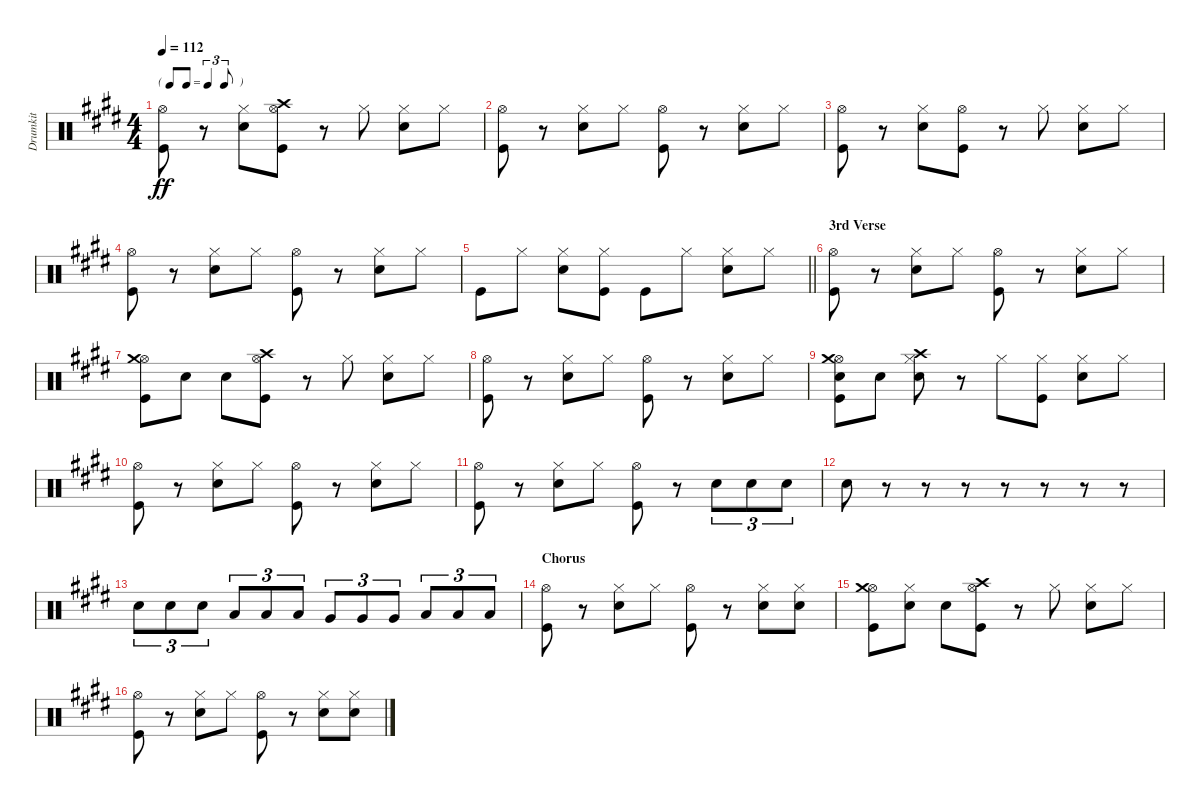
\track ("Drumkit" "Drumkit") {instrument percussion}
\staff {score}
\articulation defaults
\ts (4 4)
\tf triplet8th
\tempo 112
\clef neutral
\ks e
("Hi-Hat (open)" "Kick (hit)").8{dy ff} r.8 ("Snare (hit) 2" "Hi-Hat (closed)").8 ("Hi-Hat (open)" "Kick (hit)" "Crash high (hit)").8 r.8 "Hi-Hat (closed)".8 ("Snare (hit) 2" "Hi-Hat (closed)").8 "Hi-Hat (closed)".8 |
("Hi-Hat (open)" "Kick (hit)").8 r.8 ("Snare (hit) 2" "Hi-Hat (closed)").8 "Hi-Hat (closed)".8 ("Kick (hit)" "Hi-Hat (open)").8 r.8 ("Snare (hit) 2" "Hi-Hat (closed)").8 "Hi-Hat (closed)".8 |
("Hi-Hat (open)" "Kick (hit)").8 r.8 ("Snare (hit) 2" "Hi-Hat (closed)").8 ("Hi-Hat (open)" "Kick (hit)").8 r.8 "Hi-Hat (closed)".8 ("Snare (hit) 2" "Hi-Hat (closed)").8 "Hi-Hat (closed)".8 |
("Hi-Hat (open)" "Kick (hit)").8 r.8 ("Snare (hit) 2" "Hi-Hat (closed)").8 "Hi-Hat (closed)".8 ("Kick (hit)" "Hi-Hat (open)").8 r.8 ("Snare (hit) 2" "Hi-Hat (closed)").8 "Hi-Hat (closed)".8 |
\barLineRight lightlight "Kick (hit)".8 "Hi-Hat (closed)".8
("Snare (hit) 2" "Hi-Hat (closed)").8 ("Hi-Hat (closed)" "Kick (hit)").8 "Kick (hit)".8 "Hi-Hat (closed)".8 ("Snare (hit) 2" "Hi-Hat (closed)").8 "Hi-Hat (closed)".8 |
\section ("" "3rd Verse")
("Hi-Hat (open)" "Kick (hit)").8 r.8 ("Snare (hit) 2" "Hi-Hat (closed)").8 "Hi-Hat (closed)".8 ("Kick (hit)" "Hi-Hat (open)").8 r.8 ("Snare (hit) 2" "Hi-Hat (closed)").8 "Hi-Hat (closed)".8 |
("Kick (hit)" "Hi-Hat (open)" "Crash medium (hit)").8 "Snare (hit) 2".8 "Snare (hit) 2".8 ("Kick (hit)" "Crash high (hit)" "Hi-Hat (open)").8 r.8 "Hi-Hat (closed)".8 ("Snare (hit) 2" "Hi-Hat (closed)").8 "Hi-Hat (closed)".8 |
("Hi-Hat (open)" "Kick (hit)").8 r.8 ("Snare (hit) 2" "Hi-Hat (closed)").8 "Hi-Hat (closed)".8 ("Kick (hit)" "Hi-Hat (open)").8 r.8 ("Snare (hit) 2" "Hi-Hat (closed)").8 "Hi-Hat (closed)".8 |
("Snare (hit) 2" "Kick (hit)" "Hi-Hat (open)" "Crash medium (hit)").8 "Snare (hit) 2".8 ("Snare (hit) 2" "Crash high (hit)" "Hi-Hat (closed)").8 r.8 "Hi-Hat (closed)".8 ("Hi-Hat (closed)" "Kick (hit)").8 ("Snare (hit) 2" "Hi-Hat (closed)").8 "Hi-Hat (closed)".8 |
("Hi-Hat (open)" "Kick (hit)").8 r.8 ("Snare (hit) 2" "Hi-Hat (closed)").8 "Hi-Hat (closed)".8 ("Kick (hit)" "Hi-Hat (open)").8 r.8 ("Snare (hit) 2" "Hi-Hat (closed)").8 "Hi-Hat (closed)".8 |
("Hi-Hat (open)" "Kick (hit)").8 r.8 ("Snare (hit) 2" "Hi-Hat (closed)").8 "Hi-Hat (closed)".8 ("Kick (hit)" "Hi-Hat (open)").8 r.8 "Snare (hit) 2".8{tu (3 2)} "Snare (hit) 2".8{tu (3 2)} "Snare (hit) 2".8{tu (3 2)} |
"Snare (hit) 2".8 r.8 r.8 r.8 r.8 r.8 r.8 r.8 |
"Snare (hit) 2".8{tu (3 2)} "Snare (hit) 2".8{tu (3 2)} "Snare (hit) 2".8{tu (3 2)} "Low Tom (hit)".8{tu (3 2)} "Low Tom (hit)".8{tu (3 2)} "Low Tom (hit)".8{tu (3 2)} "Very Low Tom (hit)".8{tu (3 2)} "Very Low Tom (hit)".8{tu (3 2)} "Very Low Tom (hit)".8{tu (3 2)} "Low Floor Tom (hit)".8{tu (3 2)} "Low Floor Tom (hit)".8{tu (3 2)} "Low Floor Tom (hit)".8{tu (3 2)} |
\section ("" "Chorus")
("Hi-Hat (open)" "Kick (hit)").8 r.8 ("Snare (hit) 2" "Hi-Hat (closed)").8 "Hi-Hat (closed)".8 ("Kick (hit)" "Hi-Hat (open)").8 r.8 ("Snare (hit) 2" "Hi-Hat (closed)").8 ("Hi-Hat (closed)" "Snare (hit) 2").8 |
("Hi-Hat (open)" "Kick (hit)" "Crash medium (hit)").8 ("Hi-Hat (closed)" "Snare (hit) 2").8 "Snare (hit) 2".8 ("Kick (hit)" "Hi-Hat (open)" "Crash high (hit)").8 r.8 "Hi-Hat (closed)".8 ("Snare (hit) 2" "Hi-Hat (closed)").8 "Hi-Hat (closed)".8 |
("Hi-Hat (open)" "Kick (hit)").8 r.8 ("Snare (hit) 2" "Hi-Hat (closed)").8 "Hi-Hat (closed)".8 ("Kick (hit)" "Hi-Hat (open)").8 r.8 ("Snare (hit) 2" "Hi-Hat (closed)").8 ("Hi-Hat (closed)" "Snare (hit) 2").8
